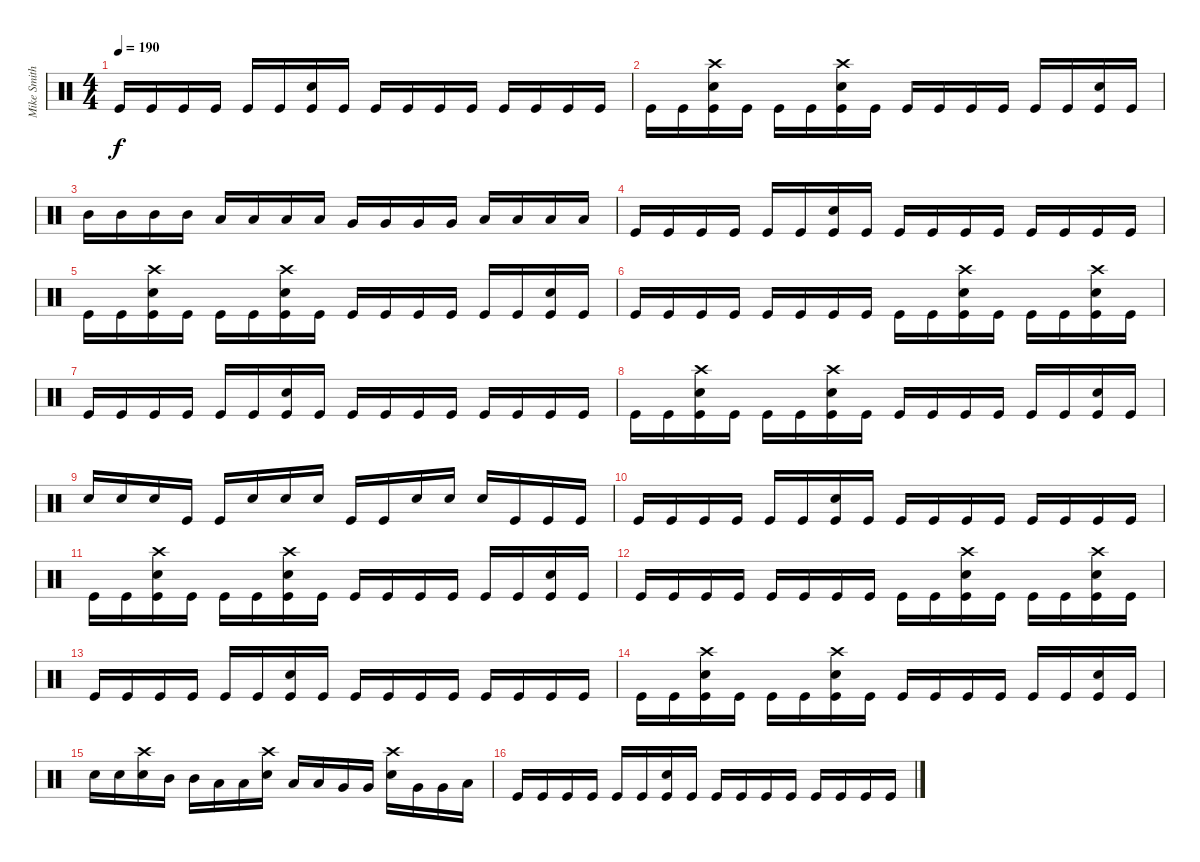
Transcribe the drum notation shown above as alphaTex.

\track ("Mike Smith" "Mike Smith") {instrument percussion}
\staff
\articulation defaults
\ts (4 4)
\tempo 190
\clef neutral
\ks c "Kick (hit)".16{dy f} "Kick (hit)".16 "Kick (hit)".16 "Kick (hit)".16 "Kick (hit)".16 "Kick (hit)".16
("Snare (hit) 2" "Kick (hit)").16 "Kick (hit)".16 "Kick (hit)".16 "Kick (hit)".16 "Kick (hit)".16 "Kick (hit)".16 "Kick (hit)".16 "Kick (hit)".16 "Kick (hit)".16 "Kick (hit)".16 |
"Kick (hit)".16 "Kick (hit)".16 ("Crash high (hit)" "Snare (hit) 2" "Kick (hit)").16 "Kick (hit)".16 "Kick (hit)".16 "Kick (hit)".16 ("Crash high (hit)" "Snare (hit) 2" "Kick (hit)").16 "Kick (hit)".16 "Kick (hit)".16 "Kick (hit)".16 "Kick (hit)".16 "Kick (hit)".16 "Kick (hit)".16 "Kick (hit)".16 ("Snare (hit) 2" "Kick (hit)").16 "Kick (hit)".16 |
"Mid Tom (hit)".16 "Mid Tom (hit)".16 "Mid Tom (hit)".16 "Mid Tom (hit)".16 "Low Tom (hit)".16 "Low Tom (hit)".16 "Low Tom (hit)".16 "Low Tom (hit)".16 "Very Low Tom (hit)".16 "Very Low Tom (hit)".16 "Very Low Tom (hit)".16 "Very Low Tom (hit)".16 "Low Floor Tom (hit)".16 "Low Floor Tom (hit)".16 "Low Floor Tom (hit)".16 "Low Floor Tom (hit)".16 |
"Kick (hit)".16 "Kick (hit)".16 "Kick (hit)".16 "Kick (hit)".16 "Kick (hit)".16 "Kick (hit)".16 ("Snare (hit) 2" "Kick (hit)").16 "Kick (hit)".16 "Kick (hit)".16 "Kick (hit)".16 "Kick (hit)".16 "Kick (hit)".16 "Kick (hit)".16 "Kick (hit)".16 "Kick (hit)".16 "Kick (hit)".16 |
"Kick (hit)".16 "Kick (hit)".16 ("Crash high (hit)" "Snare (hit) 2" "Kick (hit)").16 "Kick (hit)".16 "Kick (hit)".16 "Kick (hit)".16 ("Crash high (hit)" "Snare (hit) 2" "Kick (hit)").16 "Kick (hit)".16 "Kick (hit)".16 "Kick (hit)".16 "Kick (hit)".16 "Kick (hit)".16 "Kick (hit)".16 "Kick (hit)".16 ("Snare (hit) 2" "Kick (hit)").16 "Kick (hit)".16 |
"Kick (hit)".16 "Kick (hit)".16 "Kick (hit)".16 "Kick (hit)".16 "Kick (hit)".16 "Kick (hit)".16 "Kick (hit)".16 "Kick (hit)".16 "Kick (hit)".16 "Kick (hit)".16 ("Crash high (hit)" "Snare (hit) 2" "Kick (hit)").16 "Kick (hit)".16 "Kick (hit)".16 "Kick (hit)".16 ("Crash high (hit)" "Snare (hit) 2" "Kick (hit)").16 "Kick (hit)".16 |
"Kick (hit)".16 "Kick (hit)".16 "Kick (hit)".16 "Kick (hit)".16 "Kick (hit)".16 "Kick (hit)".16 ("Snare (hit) 2" "Kick (hit)").16 "Kick (hit)".16 "Kick (hit)".16 "Kick (hit)".16 "Kick (hit)".16 "Kick (hit)".16 "Kick (hit)".16 "Kick (hit)".16 "Kick (hit)".16 "Kick (hit)".16 |
"Kick (hit)".16 "Kick (hit)".16 ("Crash high (hit)" "Snare (hit) 2" "Kick (hit)").16 "Kick (hit)".16 "Kick (hit)".16 "Kick (hit)".16 ("Crash high (hit)" "Snare (hit) 2" "Kick (hit)").16 "Kick (hit)".16 "Kick (hit)".16 "Kick (hit)".16 "Kick (hit)".16 "Kick (hit)".16 "Kick (hit)".16 "Kick (hit)".16 ("Snare (hit) 2" "Kick (hit)").16 "Kick (hit)".16 |
"Snare (hit) 2".16 "Snare (hit) 2".16 "Snare (hit) 2".16 "Kick (hit)".16 "Kick (hit)".16 "Snare (hit) 2".16 "Snare (hit) 2".16 "Snare (hit) 2".16 "Kick (hit)".16 "Kick (hit)".16 "Snare (hit) 2".16 "Snare (hit) 2".16 "Snare (hit) 2".16 "Kick (hit)".16 "Kick (hit)".16 "Kick (hit)".16 |
"Kick (hit)".16 "Kick (hit)".16 "Kick (hit)".16 "Kick (hit)".16 "Kick (hit)".16 "Kick (hit)".16 ("Snare (hit) 2" "Kick (hit)").16 "Kick (hit)".16 "Kick (hit)".16 "Kick (hit)".16 "Kick (hit)".16 "Kick (hit)".16 "Kick (hit)".16 "Kick (hit)".16 "Kick (hit)".16 "Kick (hit)".16 |
"Kick (hit)".16 "Kick (hit)".16 ("Crash high (hit)" "Snare (hit) 2" "Kick (hit)").16 "Kick (hit)".16 "Kick (hit)".16 "Kick (hit)".16 ("Crash high (hit)" "Snare (hit) 2" "Kick (hit)").16 "Kick (hit)".16 "Kick (hit)".16 "Kick (hit)".16 "Kick (hit)".16 "Kick (hit)".16 "Kick (hit)".16 "Kick (hit)".16 ("Snare (hit) 2" "Kick (hit)").16 "Kick (hit)".16 |
"Kick (hit)".16 "Kick (hit)".16 "Kick (hit)".16 "Kick (hit)".16 "Kick (hit)".16 "Kick (hit)".16 "Kick (hit)".16 "Kick (hit)".16 "Kick (hit)".16 "Kick (hit)".16 ("Crash high (hit)" "Snare (hit) 2" "Kick (hit)").16 "Kick (hit)".16 "Kick (hit)".16 "Kick (hit)".16 ("Crash high (hit)" "Snare (hit) 2" "Kick (hit)").16 "Kick (hit)".16 |
"Kick (hit)".16 "Kick (hit)".16 "Kick (hit)".16 "Kick (hit)".16 "Kick (hit)".16 "Kick (hit)".16 ("Snare (hit) 2" "Kick (hit)").16 "Kick (hit)".16 "Kick (hit)".16 "Kick (hit)".16 "Kick (hit)".16 "Kick (hit)".16 "Kick (hit)".16 "Kick (hit)".16 "Kick (hit)".16 "Kick (hit)".16 |
"Kick (hit)".16 "Kick (hit)".16 ("Crash high (hit)" "Snare (hit) 2" "Kick (hit)").16 "Kick (hit)".16 "Kick (hit)".16 "Kick (hit)".16 ("Crash high (hit)" "Snare (hit) 2" "Kick (hit)").16 "Kick (hit)".16 "Kick (hit)".16 "Kick (hit)".16 "Kick (hit)".16 "Kick (hit)".16 "Kick (hit)".16 "Kick (hit)".16 ("Snare (hit) 2" "Kick (hit)").16 "Kick (hit)".16 |
"Snare (hit) 2".16 "Snare (hit) 2".16 ("Crash high (hit)" "Snare (hit) 2").16 "Mid Tom (hit)".16 "Mid Tom (hit)".16 "Low Tom (hit)".16 "Low Tom (hit)".16 ("Crash high (hit)" "Snare (hit) 2").16 "Low Tom (hit)".16 "Low Tom (hit)".16 "Very Low Tom (hit)".16 "Very Low Tom (hit)".16 ("Crash high (hit)" "Snare (hit) 2").16 "Very Low Tom (hit)".16 "Very Low Tom (hit)".16 "Low Floor Tom (hit)".16 |
"Kick (hit)".16 "Kick (hit)".16 "Kick (hit)".16 "Kick (hit)".16 "Kick (hit)".16 "Kick (hit)".16 ("Snare (hit) 2" "Kick (hit)").16 "Kick (hit)".16 "Kick (hit)".16 "Kick (hit)".16 "Kick (hit)".16 "Kick (hit)".16 "Kick (hit)".16 "Kick (hit)".16 "Kick (hit)".16 "Kick (hit)".16
